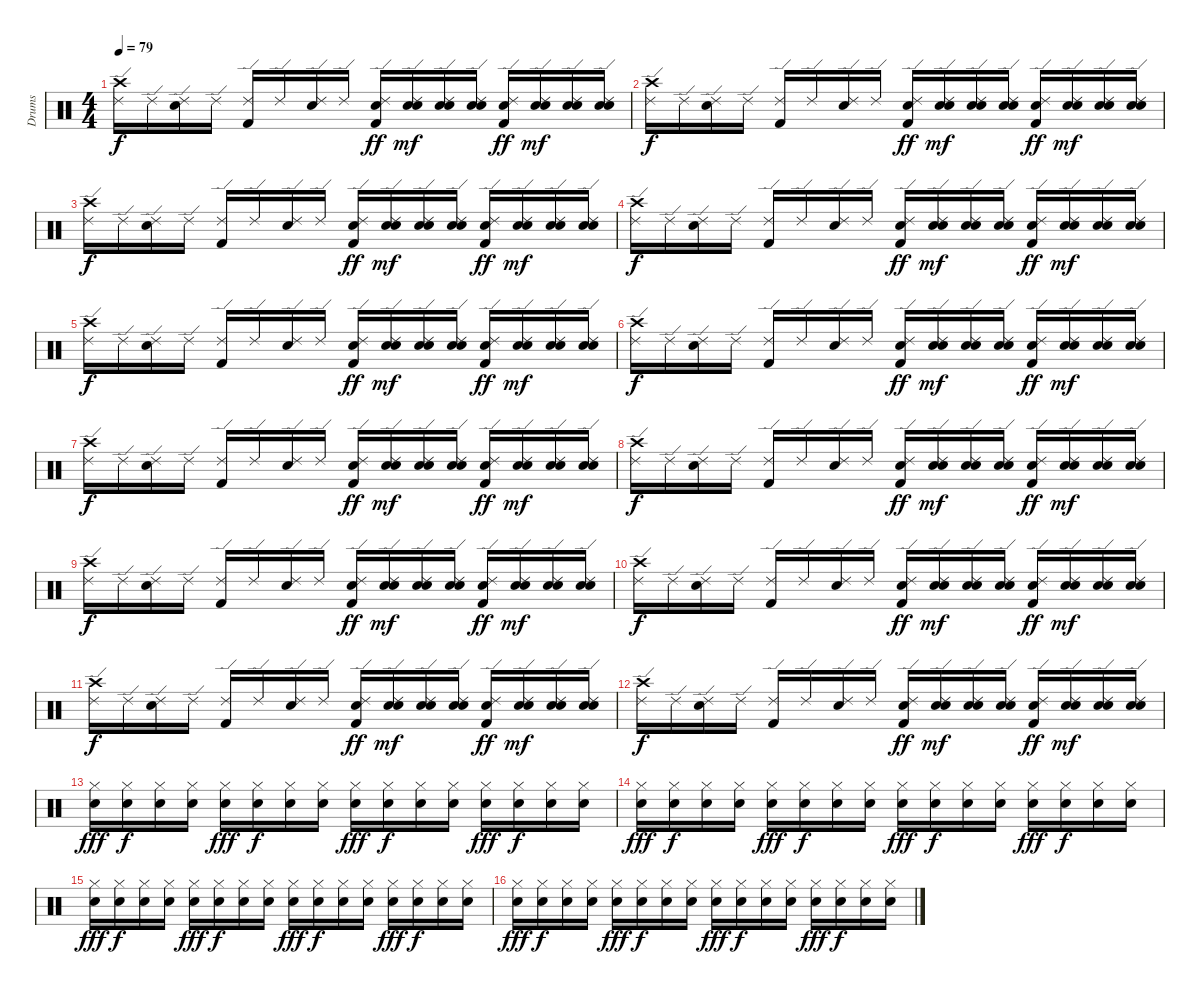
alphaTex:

\track ("Drums" "Drums") {instrument percussion}
\staff {score}
\articulation defaults
\ts (4 4)
\tempo 79
\clef neutral
\ks c
("Crash high (hit)" "Ride (edge) 2").16{dy f} "Ride (edge) 2".16 ("Electric Snare (hit)" "Ride (edge) 2").16 "Ride (edge) 2".16 ("Kick (hit) 2" "Ride (edge) 2").16 "Ride (edge) 2".16 ("Electric Snare (hit)" "Ride (edge) 2").16 "Ride (edge) 2".16 ("Electric Snare (hit)" "Ride (edge) 2" "Kick (hit) 2").16{dy ff} ("Electric Snare (hit)" "Ride (edge) 2" "Snare (hit) 2").16{dy mf} ("Electric Snare (hit)" "Ride (edge) 2" "Snare (hit) 2").16 ("Electric Snare (hit)" "Ride (edge) 2" "Snare (hit) 2").16 ("Electric Snare (hit)" "Ride (edge) 2" "Kick (hit) 2").16{dy ff} ("Electric Snare (hit)" "Ride (edge) 2" "Snare (hit) 2").16{dy mf} ("Electric Snare (hit)" "Ride (edge) 2" "Snare (hit) 2").16 ("Electric Snare (hit)" "Ride (edge) 2" "Snare (hit) 2").16 |
("Crash high (hit)" "Ride (edge) 2").16{dy f} "Ride (edge) 2".16 ("Electric Snare (hit)" "Ride (edge) 2").16 "Ride (edge) 2".16 ("Kick (hit) 2" "Ride (edge) 2").16 "Ride (edge) 2".16 ("Electric Snare (hit)" "Ride (edge) 2").16 "Ride (edge) 2".16 ("Electric Snare (hit)" "Ride (edge) 2" "Kick (hit) 2").16{dy ff} ("Electric Snare (hit)" "Ride (edge) 2" "Snare (hit) 2").16{dy mf} ("Electric Snare (hit)" "Ride (edge) 2" "Snare (hit) 2").16 ("Electric Snare (hit)" "Ride (edge) 2" "Snare (hit) 2").16 ("Electric Snare (hit)" "Ride (edge) 2" "Kick (hit) 2").16{dy ff} ("Electric Snare (hit)" "Ride (edge) 2" "Snare (hit) 2").16{dy mf} ("Electric Snare (hit)" "Ride (edge) 2" "Snare (hit) 2").16 ("Electric Snare (hit)" "Ride (edge) 2" "Snare (hit) 2").16 |
("Crash high (hit)" "Ride (edge) 2").16{dy f} "Ride (edge) 2".16 ("Electric Snare (hit)" "Ride (edge) 2").16 "Ride (edge) 2".16 ("Kick (hit) 2" "Ride (edge) 2").16 "Ride (edge) 2".16 ("Electric Snare (hit)" "Ride (edge) 2").16 "Ride (edge) 2".16 ("Electric Snare (hit)" "Ride (edge) 2" "Kick (hit) 2").16{dy ff} ("Electric Snare (hit)" "Ride (edge) 2" "Snare (hit) 2").16{dy mf} ("Electric Snare (hit)" "Ride (edge) 2" "Snare (hit) 2").16 ("Electric Snare (hit)" "Ride (edge) 2" "Snare (hit) 2").16 ("Electric Snare (hit)" "Ride (edge) 2" "Kick (hit) 2").16{dy ff} ("Electric Snare (hit)" "Ride (edge) 2" "Snare (hit) 2").16{dy mf} ("Electric Snare (hit)" "Ride (edge) 2" "Snare (hit) 2").16 ("Electric Snare (hit)" "Ride (edge) 2" "Snare (hit) 2").16 |
("Crash high (hit)" "Ride (edge) 2").16{dy f} "Ride (edge) 2".16 ("Electric Snare (hit)" "Ride (edge) 2").16 "Ride (edge) 2".16 ("Kick (hit) 2" "Ride (edge) 2").16 "Ride (edge) 2".16 ("Electric Snare (hit)" "Ride (edge) 2").16 "Ride (edge) 2".16 ("Electric Snare (hit)" "Ride (edge) 2" "Kick (hit) 2").16{dy ff} ("Electric Snare (hit)" "Ride (edge) 2" "Snare (hit) 2").16{dy mf} ("Electric Snare (hit)" "Ride (edge) 2" "Snare (hit) 2").16 ("Electric Snare (hit)" "Ride (edge) 2" "Snare (hit) 2").16 ("Electric Snare (hit)" "Ride (edge) 2" "Kick (hit) 2").16{dy ff} ("Electric Snare (hit)" "Ride (edge) 2" "Snare (hit) 2").16{dy mf} ("Electric Snare (hit)" "Ride (edge) 2" "Snare (hit) 2").16 ("Electric Snare (hit)" "Ride (edge) 2" "Snare (hit) 2").16 |
("Crash high (hit)" "Ride (edge) 2").16{dy f} "Ride (edge) 2".16 ("Electric Snare (hit)" "Ride (edge) 2").16 "Ride (edge) 2".16 ("Kick (hit) 2" "Ride (edge) 2").16 "Ride (edge) 2".16 ("Electric Snare (hit)" "Ride (edge) 2").16 "Ride (edge) 2".16 ("Electric Snare (hit)" "Ride (edge) 2" "Kick (hit) 2").16{dy ff} ("Electric Snare (hit)" "Ride (edge) 2" "Snare (hit) 2").16{dy mf} ("Electric Snare (hit)" "Ride (edge) 2" "Snare (hit) 2").16 ("Electric Snare (hit)" "Ride (edge) 2" "Snare (hit) 2").16 ("Electric Snare (hit)" "Ride (edge) 2" "Kick (hit) 2").16{dy ff} ("Electric Snare (hit)" "Ride (edge) 2" "Snare (hit) 2").16{dy mf} ("Electric Snare (hit)" "Ride (edge) 2" "Snare (hit) 2").16 ("Electric Snare (hit)" "Ride (edge) 2" "Snare (hit) 2").16 |
("Crash high (hit)" "Ride (edge) 2").16{dy f} "Ride (edge) 2".16 ("Electric Snare (hit)" "Ride (edge) 2").16 "Ride (edge) 2".16 ("Kick (hit) 2" "Ride (edge) 2").16 "Ride (edge) 2".16 ("Electric Snare (hit)" "Ride (edge) 2").16 "Ride (edge) 2".16 ("Electric Snare (hit)" "Ride (edge) 2" "Kick (hit) 2").16{dy ff} ("Electric Snare (hit)" "Ride (edge) 2" "Snare (hit) 2").16{dy mf} ("Electric Snare (hit)" "Ride (edge) 2" "Snare (hit) 2").16 ("Electric Snare (hit)" "Ride (edge) 2" "Snare (hit) 2").16 ("Electric Snare (hit)" "Ride (edge) 2" "Kick (hit) 2").16{dy ff} ("Electric Snare (hit)" "Ride (edge) 2" "Snare (hit) 2").16{dy mf} ("Electric Snare (hit)" "Ride (edge) 2" "Snare (hit) 2").16 ("Electric Snare (hit)" "Ride (edge) 2" "Snare (hit) 2").16 |
("Crash high (hit)" "Ride (edge) 2").16{dy f} "Ride (edge) 2".16 ("Electric Snare (hit)" "Ride (edge) 2").16 "Ride (edge) 2".16 ("Kick (hit) 2" "Ride (edge) 2").16 "Ride (edge) 2".16 ("Electric Snare (hit)" "Ride (edge) 2").16 "Ride (edge) 2".16 ("Electric Snare (hit)" "Ride (edge) 2" "Kick (hit) 2").16{dy ff} ("Electric Snare (hit)" "Ride (edge) 2" "Snare (hit) 2").16{dy mf} ("Electric Snare (hit)" "Ride (edge) 2" "Snare (hit) 2").16 ("Electric Snare (hit)" "Ride (edge) 2" "Snare (hit) 2").16 ("Electric Snare (hit)" "Ride (edge) 2" "Kick (hit) 2").16{dy ff} ("Electric Snare (hit)" "Ride (edge) 2" "Snare (hit) 2").16{dy mf} ("Electric Snare (hit)" "Ride (edge) 2" "Snare (hit) 2").16 ("Electric Snare (hit)" "Ride (edge) 2" "Snare (hit) 2").16 |
("Crash high (hit)" "Ride (edge) 2").16{dy f} "Ride (edge) 2".16 ("Electric Snare (hit)" "Ride (edge) 2").16 "Ride (edge) 2".16 ("Kick (hit) 2" "Ride (edge) 2").16 "Ride (edge) 2".16 ("Electric Snare (hit)" "Ride (edge) 2").16 "Ride (edge) 2".16 ("Electric Snare (hit)" "Ride (edge) 2" "Kick (hit) 2").16{dy ff} ("Electric Snare (hit)" "Ride (edge) 2" "Snare (hit) 2").16{dy mf} ("Electric Snare (hit)" "Ride (edge) 2" "Snare (hit) 2").16 ("Electric Snare (hit)" "Ride (edge) 2" "Snare (hit) 2").16 ("Electric Snare (hit)" "Ride (edge) 2" "Kick (hit) 2").16{dy ff} ("Electric Snare (hit)" "Ride (edge) 2" "Snare (hit) 2").16{dy mf} ("Electric Snare (hit)" "Ride (edge) 2" "Snare (hit) 2").16 ("Electric Snare (hit)" "Ride (edge) 2" "Snare (hit) 2").16 |
("Crash high (hit)" "Ride (edge) 2").16{dy f} "Ride (edge) 2".16 ("Electric Snare (hit)" "Ride (edge) 2").16 "Ride (edge) 2".16 ("Kick (hit) 2" "Ride (edge) 2").16 "Ride (edge) 2".16 ("Electric Snare (hit)" "Ride (edge) 2").16 "Ride (edge) 2".16 ("Electric Snare (hit)" "Ride (edge) 2" "Kick (hit) 2").16{dy ff} ("Electric Snare (hit)" "Ride (edge) 2" "Snare (hit) 2").16{dy mf} ("Electric Snare (hit)" "Ride (edge) 2" "Snare (hit) 2").16 ("Electric Snare (hit)" "Ride (edge) 2" "Snare (hit) 2").16 ("Electric Snare (hit)" "Ride (edge) 2" "Kick (hit) 2").16{dy ff} ("Electric Snare (hit)" "Ride (edge) 2" "Snare (hit) 2").16{dy mf} ("Electric Snare (hit)" "Ride (edge) 2" "Snare (hit) 2").16 ("Electric Snare (hit)" "Ride (edge) 2" "Snare (hit) 2").16 |
("Crash high (hit)" "Ride (edge) 2").16{dy f} "Ride (edge) 2".16 ("Electric Snare (hit)" "Ride (edge) 2").16 "Ride (edge) 2".16 ("Kick (hit) 2" "Ride (edge) 2").16 "Ride (edge) 2".16 ("Electric Snare (hit)" "Ride (edge) 2").16 "Ride (edge) 2".16 ("Electric Snare (hit)" "Ride (edge) 2" "Kick (hit) 2").16{dy ff} ("Electric Snare (hit)" "Ride (edge) 2" "Snare (hit) 2").16{dy mf} ("Electric Snare (hit)" "Ride (edge) 2" "Snare (hit) 2").16 ("Electric Snare (hit)" "Ride (edge) 2" "Snare (hit) 2").16 ("Electric Snare (hit)" "Ride (edge) 2" "Kick (hit) 2").16{dy ff} ("Electric Snare (hit)" "Ride (edge) 2" "Snare (hit) 2").16{dy mf} ("Electric Snare (hit)" "Ride (edge) 2" "Snare (hit) 2").16 ("Electric Snare (hit)" "Ride (edge) 2" "Snare (hit) 2").16 |
("Crash high (hit)" "Ride (edge) 2").16{dy f} "Ride (edge) 2".16 ("Electric Snare (hit)" "Ride (edge) 2").16 "Ride (edge) 2".16 ("Kick (hit) 2" "Ride (edge) 2").16 "Ride (edge) 2".16 ("Electric Snare (hit)" "Ride (edge) 2").16 "Ride (edge) 2".16 ("Electric Snare (hit)" "Ride (edge) 2" "Kick (hit) 2").16{dy ff} ("Electric Snare (hit)" "Ride (edge) 2" "Snare (hit) 2").16{dy mf} ("Electric Snare (hit)" "Ride (edge) 2" "Snare (hit) 2").16 ("Electric Snare (hit)" "Ride (edge) 2" "Snare (hit) 2").16 ("Electric Snare (hit)" "Ride (edge) 2" "Kick (hit) 2").16{dy ff} ("Electric Snare (hit)" "Ride (edge) 2" "Snare (hit) 2").16{dy mf} ("Electric Snare (hit)" "Ride (edge) 2" "Snare (hit) 2").16 ("Electric Snare (hit)" "Ride (edge) 2" "Snare (hit) 2").16 |
("Crash high (hit)" "Ride (edge) 2").16{dy f} "Ride (edge) 2".16 ("Electric Snare (hit)" "Ride (edge) 2").16 "Ride (edge) 2".16 ("Kick (hit) 2" "Ride (edge) 2").16 "Ride (edge) 2".16 ("Electric Snare (hit)" "Ride (edge) 2").16 "Ride (edge) 2".16 ("Electric Snare (hit)" "Ride (edge) 2" "Kick (hit) 2").16{dy ff} ("Electric Snare (hit)" "Ride (edge) 2" "Snare (hit) 2").16{dy mf} ("Electric Snare (hit)" "Ride (edge) 2" "Snare (hit) 2").16 ("Electric Snare (hit)" "Ride (edge) 2" "Snare (hit) 2").16 ("Electric Snare (hit)" "Ride (edge) 2" "Kick (hit) 2").16{dy ff} ("Electric Snare (hit)" "Ride (edge) 2" "Snare (hit) 2").16{dy mf} ("Electric Snare (hit)" "Ride (edge) 2" "Snare (hit) 2").16 ("Electric Snare (hit)" "Ride (edge) 2" "Snare (hit) 2").16 |
("Electric Snare (hit)" "Hi-Hat (closed)").16{dy fff} ("Hi-Hat (closed)" "Snare (hit) 2").16{dy f} ("Hi-Hat (closed)" "Snare (hit) 2").16 ("Hi-Hat (closed)" "Snare (hit) 2").16 ("Electric Snare (hit)" "Hi-Hat (closed)").16{dy fff} ("Hi-Hat (closed)" "Snare (hit) 2").16{dy f} ("Hi-Hat (closed)" "Snare (hit) 2").16 ("Hi-Hat (closed)" "Snare (hit) 2").16 ("Electric Snare (hit)" "Hi-Hat (closed)").16{dy fff} ("Hi-Hat (closed)" "Snare (hit) 2").16{dy f} ("Hi-Hat (closed)" "Snare (hit) 2").16 ("Hi-Hat (closed)" "Snare (hit) 2").16 ("Electric Snare (hit)" "Hi-Hat (closed)").16{dy fff} ("Hi-Hat (closed)" "Snare (hit) 2").16{dy f} ("Hi-Hat (closed)" "Snare (hit) 2").16 ("Hi-Hat (closed)" "Snare (hit) 2").16 |
("Electric Snare (hit)" "Hi-Hat (closed)").16{dy fff} ("Hi-Hat (closed)" "Snare (hit) 2").16{dy f} ("Hi-Hat (closed)" "Snare (hit) 2").16 ("Hi-Hat (closed)" "Snare (hit) 2").16 ("Electric Snare (hit)" "Hi-Hat (closed)").16{dy fff} ("Hi-Hat (closed)" "Snare (hit) 2").16{dy f} ("Hi-Hat (closed)" "Snare (hit) 2").16 ("Hi-Hat (closed)" "Snare (hit) 2").16 ("Electric Snare (hit)" "Hi-Hat (closed)").16{dy fff} ("Hi-Hat (closed)" "Snare (hit) 2").16{dy f} ("Hi-Hat (closed)" "Snare (hit) 2").16 ("Hi-Hat (closed)" "Snare (hit) 2").16 ("Electric Snare (hit)" "Hi-Hat (closed)").16{dy fff} ("Hi-Hat (closed)" "Snare (hit) 2").16{dy f} ("Hi-Hat (closed)" "Snare (hit) 2").16 ("Hi-Hat (closed)" "Snare (hit) 2").16 |
("Electric Snare (hit)" "Hi-Hat (closed)").16{dy fff} ("Hi-Hat (closed)" "Snare (hit) 2").16{dy f} ("Hi-Hat (closed)" "Snare (hit) 2").16 ("Hi-Hat (closed)" "Snare (hit) 2").16 ("Electric Snare (hit)" "Hi-Hat (closed)").16{dy fff} ("Hi-Hat (closed)" "Snare (hit) 2").16{dy f} ("Hi-Hat (closed)" "Snare (hit) 2").16 ("Hi-Hat (closed)" "Snare (hit) 2").16 ("Electric Snare (hit)" "Hi-Hat (closed)").16{dy fff} ("Hi-Hat (closed)" "Snare (hit) 2").16{dy f} ("Hi-Hat (closed)" "Snare (hit) 2").16 ("Hi-Hat (closed)" "Snare (hit) 2").16 ("Electric Snare (hit)" "Hi-Hat (closed)").16{dy fff} ("Hi-Hat (closed)" "Snare (hit) 2").16{dy f} ("Hi-Hat (closed)" "Snare (hit) 2").16 ("Hi-Hat (closed)" "Snare (hit) 2").16 |
("Electric Snare (hit)" "Hi-Hat (closed)").16{dy fff} ("Hi-Hat (closed)" "Snare (hit) 2").16{dy f} ("Hi-Hat (closed)" "Snare (hit) 2").16 ("Hi-Hat (closed)" "Snare (hit) 2").16 ("Electric Snare (hit)" "Hi-Hat (closed)").16{dy fff} ("Hi-Hat (closed)" "Snare (hit) 2").16{dy f} ("Hi-Hat (closed)" "Snare (hit) 2").16 ("Hi-Hat (closed)" "Snare (hit) 2").16 ("Electric Snare (hit)" "Hi-Hat (closed)").16{dy fff} ("Hi-Hat (closed)" "Snare (hit) 2").16{dy f} ("Hi-Hat (closed)" "Snare (hit) 2").16 ("Hi-Hat (closed)" "Snare (hit) 2").16 ("Electric Snare (hit)" "Hi-Hat (closed)").16{dy fff} ("Hi-Hat (closed)" "Snare (hit) 2").16{dy f} ("Hi-Hat (closed)" "Snare (hit) 2").16 ("Hi-Hat (closed)" "Snare (hit) 2").16
